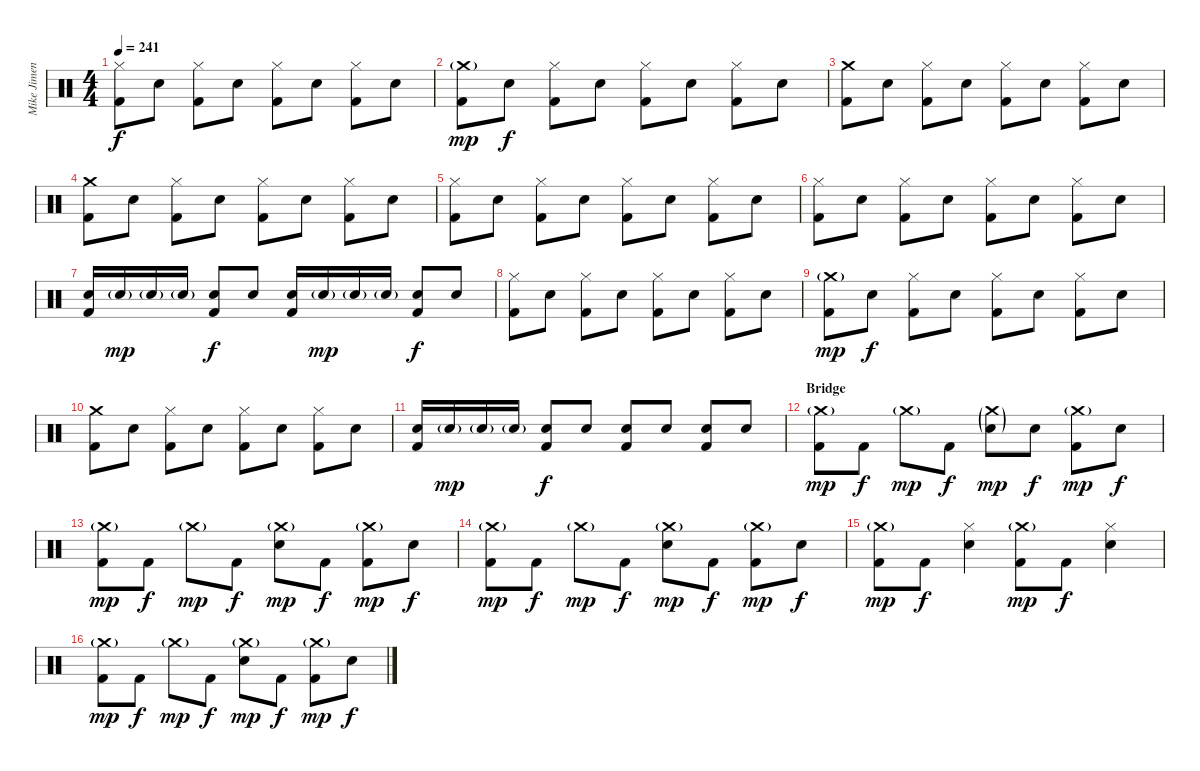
\track ("Mike Jimenez" "Mike Jimen") {instrument percussion}
\staff {score}
\articulation defaults
\ts (4 4)
\tempo 241
\clef neutral
\ks c
("Hi-Hat (closed)" "Kick (hit) 2").8{dy f} "Electric Snare (hit)".8 ("Hi-Hat (closed)" "Kick (hit) 2").8 "Electric Snare (hit)".8 ("Hi-Hat (closed)" "Kick (hit) 2").8 "Electric Snare (hit)".8 ("Hi-Hat (closed)" "Kick (hit) 2").8 "Electric Snare (hit)".8 |
("Crash medium (hit)"{g} "Kick (hit) 2").8{dy mp} "Electric Snare (hit)".8{dy f} ("Hi-Hat (closed)" "Kick (hit) 2").8 "Electric Snare (hit)".8 ("Hi-Hat (closed)" "Kick (hit) 2").8 "Electric Snare (hit)".8 ("Hi-Hat (closed)" "Kick (hit) 2").8 "Electric Snare (hit)".8 |
("Crash medium (hit)" "Kick (hit) 2").8 "Electric Snare (hit)".8 ("Hi-Hat (closed)" "Kick (hit) 2").8 "Electric Snare (hit)".8 ("Hi-Hat (closed)" "Kick (hit) 2").8 "Electric Snare (hit)".8 ("Hi-Hat (closed)" "Kick (hit) 2").8 "Electric Snare (hit)".8 |
("Crash medium (hit)" "Kick (hit) 2").8 "Electric Snare (hit)".8 ("Hi-Hat (closed)" "Kick (hit) 2").8 "Electric Snare (hit)".8 ("Hi-Hat (closed)" "Kick (hit) 2").8 "Electric Snare (hit)".8 ("Hi-Hat (closed)" "Kick (hit) 2").8 "Electric Snare (hit)".8 |
("Hi-Hat (closed)" "Kick (hit) 2").8 "Electric Snare (hit)".8 ("Hi-Hat (closed)" "Kick (hit) 2").8 "Electric Snare (hit)".8 ("Hi-Hat (closed)" "Kick (hit) 2").8 "Electric Snare (hit)".8 ("Hi-Hat (closed)" "Kick (hit) 2").8 "Electric Snare (hit)".8 |
("Hi-Hat (closed)" "Kick (hit) 2").8 "Electric Snare (hit)".8 ("Hi-Hat (closed)" "Kick (hit) 2").8 "Electric Snare (hit)".8 ("Hi-Hat (closed)" "Kick (hit) 2").8 "Electric Snare (hit)".8 ("Hi-Hat (closed)" "Kick (hit) 2").8 "Electric Snare (hit)".8 |
("Electric Snare (hit)" "Kick (hit) 2").16 "Electric Snare (hit)"{g}.16{dy mp} "Electric Snare (hit)"{g}.16 "Electric Snare (hit)"{g}.16 ("Electric Snare (hit)" "Kick (hit) 2").8{dy f} "Electric Snare (hit)".8 ("Electric Snare (hit)" "Kick (hit) 2").16 "Electric Snare (hit)"{g}.16{dy mp} "Electric Snare (hit)"{g}.16 "Electric Snare (hit)"{g}.16 ("Electric Snare (hit)" "Kick (hit) 2").8{dy f} "Electric Snare (hit)".8 |
("Hi-Hat (closed)" "Kick (hit) 2").8 "Electric Snare (hit)".8 ("Hi-Hat (closed)" "Kick (hit) 2").8 "Electric Snare (hit)".8 ("Hi-Hat (closed)" "Kick (hit) 2").8 "Electric Snare (hit)".8 ("Hi-Hat (closed)" "Kick (hit) 2").8 "Electric Snare (hit)".8 |
("Crash medium (hit)"{g} "Kick (hit) 2").8{dy mp} "Electric Snare (hit)".8{dy f} ("Hi-Hat (closed)" "Kick (hit) 2").8 "Electric Snare (hit)".8 ("Hi-Hat (closed)" "Kick (hit) 2").8 "Electric Snare (hit)".8 ("Hi-Hat (closed)" "Kick (hit) 2").8 "Electric Snare (hit)".8 |
("Crash medium (hit)" "Kick (hit) 2").8 "Electric Snare (hit)".8 ("Hi-Hat (closed)" "Kick (hit) 2").8 "Electric Snare (hit)".8 ("Hi-Hat (closed)" "Kick (hit) 2").8 "Electric Snare (hit)".8 ("Hi-Hat (closed)" "Kick (hit) 2").8 "Electric Snare (hit)".8 |
("Electric Snare (hit)" "Kick (hit) 2").16 "Electric Snare (hit)"{g}.16{dy mp} "Electric Snare (hit)"{g}.16 "Electric Snare (hit)"{g}.16 ("Electric Snare (hit)" "Kick (hit) 2").8{dy f} "Electric Snare (hit)".8 ("Electric Snare (hit)" "Kick (hit) 2").8 "Electric Snare (hit)".8 ("Electric Snare (hit)" "Kick (hit) 2").8 "Electric Snare (hit)".8 |
\section ("" "Bridge")
("Crash medium (hit)"{g} "Kick (hit) 2").8{dy mp} "Kick (hit) 2".8{dy f} "Crash medium (hit)"{g}.8{dy mp} "Kick (hit) 2".8{dy f} ("Crash medium (hit)"{g} "Electric Snare (hit)"{g}).8{dy mp} "Electric Snare (hit)".8{dy f} ("Crash medium (hit)"{g} "Kick (hit) 2").8{dy mp} "Electric Snare (hit)".8{dy f} |
("Crash medium (hit)"{g} "Kick (hit) 2").8{dy mp} "Kick (hit) 2".8{dy f} "Crash medium (hit)"{g}.8{dy mp} "Kick (hit) 2".8{dy f} ("Crash medium (hit)"{g} "Electric Snare (hit)").8{dy mp} "Kick (hit) 2".8{dy f} ("Crash medium (hit)"{g} "Kick (hit) 2").8{dy mp} "Electric Snare (hit)".8{dy f} |
("Crash medium (hit)"{g} "Kick (hit) 2").8{dy mp} "Kick (hit) 2".8{dy f} "Crash medium (hit)"{g}.8{dy mp} "Kick (hit) 2".8{dy f} ("Crash medium (hit)"{g} "Electric Snare (hit)").8{dy mp} "Kick (hit) 2".8{dy f} ("Crash medium (hit)"{g} "Kick (hit) 2").8{dy mp} "Electric Snare (hit)".8{dy f} |
("Crash medium (hit)"{g} "Kick (hit) 2").8{dy mp} "Kick (hit) 2".8{dy f} ("Hi-Hat (closed)" "Electric Snare (hit)").4 ("Crash medium (hit)"{g} "Kick (hit) 2").8{dy mp} "Kick (hit) 2".8{dy f} ("Hi-Hat (closed)" "Electric Snare (hit)").4 |
("Crash medium (hit)"{g} "Kick (hit) 2").8{dy mp} "Kick (hit) 2".8{dy f} "Crash medium (hit)"{g}.8{dy mp} "Kick (hit) 2".8{dy f} ("Crash medium (hit)"{g} "Electric Snare (hit)").8{dy mp} "Kick (hit) 2".8{dy f} ("Crash medium (hit)"{g} "Kick (hit) 2").8{dy mp} "Electric Snare (hit)".8{dy f}
